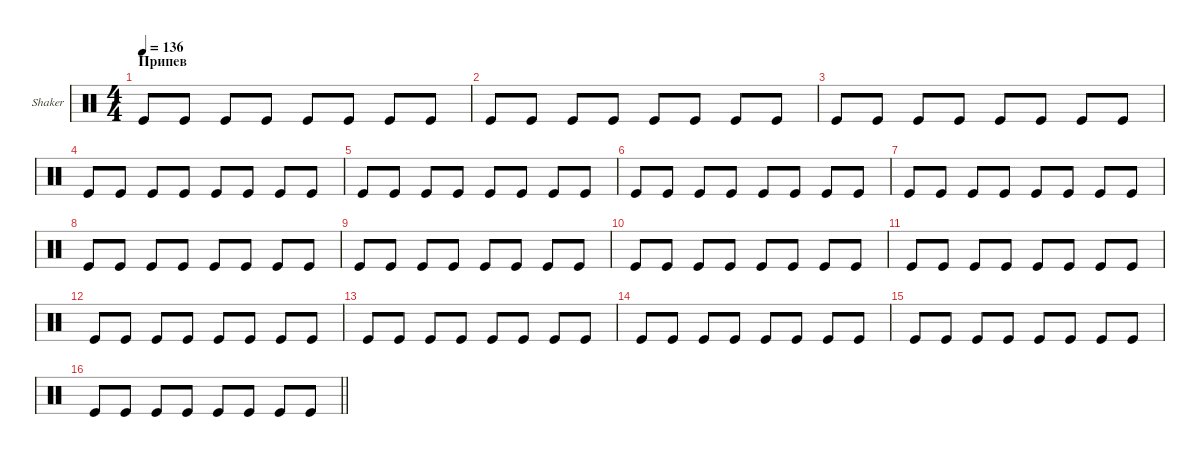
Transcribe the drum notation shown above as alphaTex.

\defaultSystemsLayout 4
\hideDynamics
\bracketExtendMode groupsimilarinstruments
\multiTrackTrackNamePolicy allsystems
\firstSystemTrackNameOrientation horizontal
\otherSystemsTrackNameOrientation horizontal
\track ("Shaker" "Shaker") {instrument percussion}
\staff {score}
\articulation defaults
\ts (4 4)
\section ("" "Припев")
\scale
0.289272
\tempo 136
\accidentals auto
\clef neutral
\ottava regular
\simile none
\scale
0.333333
\ks aminor "Kick (hit)".8{dy mf} "Kick (hit)".8 "Kick (hit)".8 "Kick (hit)".8 "Kick (hit)".8 "Kick (hit)".8 "Kick (hit)".8 "Kick (hit)".8
|
\scale
0.309524
\scale
0.333333 "Kick (hit)".8 "Kick (hit)".8 "Kick (hit)".8 "Kick (hit)".8 "Kick (hit)".8 "Kick (hit)".8 "Kick (hit)".8 "Kick (hit)".8 |
\scale
0.204762
\scale
0.333333 "Kick (hit)".8 "Kick (hit)".8 "Kick (hit)".8 "Kick (hit)".8 "Kick (hit)".8 "Kick (hit)".8 "Kick (hit)".8 "Kick (hit)".8 |
\scale
0.206792
\scale
0.333333 "Kick (hit)".8 "Kick (hit)".8 "Kick (hit)".8 "Kick (hit)".8 "Kick (hit)".8 "Kick (hit)".8 "Kick (hit)".8 "Kick (hit)".8 |
\scale
0.277691
\scale
0.333333 "Kick (hit)".8 "Kick (hit)".8 "Kick (hit)".8 "Kick (hit)".8 "Kick (hit)".8 "Kick (hit)".8 "Kick (hit)".8 "Kick (hit)".8 |
\scale
0.333333 "Kick (hit)".8 "Kick (hit)".8 "Kick (hit)".8 "Kick (hit)".8 "Kick (hit)".8 "Kick (hit)".8 "Kick (hit)".8 "Kick (hit)".8 |
\scale
0.333333 "Kick (hit)".8 "Kick (hit)".8 "Kick (hit)".8 "Kick (hit)".8 "Kick (hit)".8 "Kick (hit)".8 "Kick (hit)".8 "Kick (hit)".8 |
\scale
0.333333 "Kick (hit)".8 "Kick (hit)".8 "Kick (hit)".8 "Kick (hit)".8 "Kick (hit)".8 "Kick (hit)".8 "Kick (hit)".8 "Kick (hit)".8 |
\scale
0.290244
\scale
0.333333 "Kick (hit)".8 "Kick (hit)".8 "Kick (hit)".8 "Kick (hit)".8 "Kick (hit)".8 "Kick (hit)".8 "Kick (hit)".8 "Kick (hit)".8 |
\scale
0.262412
\scale
0.333333 "Kick (hit)".8 "Kick (hit)".8 "Kick (hit)".8 "Kick (hit)".8 "Kick (hit)".8 "Kick (hit)".8 "Kick (hit)".8 "Kick (hit)".8 |
\scale
0.193386
\scale
0.333333 "Kick (hit)".8 "Kick (hit)".8 "Kick (hit)".8 "Kick (hit)".8 "Kick (hit)".8 "Kick (hit)".8 "Kick (hit)".8 "Kick (hit)".8 |
\scale
0.254128
\scale
0.333333 "Kick (hit)".8 "Kick (hit)".8 "Kick (hit)".8 "Kick (hit)".8 "Kick (hit)".8 "Kick (hit)".8 "Kick (hit)".8 "Kick (hit)".8 |
\scale
0.321017
\scale
0.333333 "Kick (hit)".8 "Kick (hit)".8 "Kick (hit)".8 "Kick (hit)".8 "Kick (hit)".8 "Kick (hit)".8 "Kick (hit)".8 "Kick (hit)".8 |
\scale
0.229499
\scale
0.333333 "Kick (hit)".8 "Kick (hit)".8 "Kick (hit)".8 "Kick (hit)".8 "Kick (hit)".8 "Kick (hit)".8 "Kick (hit)".8 "Kick (hit)".8 |
\scale
0.23235
\scale
0.333333 "Kick (hit)".8 "Kick (hit)".8 "Kick (hit)".8 "Kick (hit)".8 "Kick (hit)".8 "Kick (hit)".8 "Kick (hit)".8 "Kick (hit)".8 |
\scale
0.217697
\scale
0.333333
\barLineRight lightlight "Kick (hit)".8 "Kick (hit)".8 "Kick (hit)".8 "Kick (hit)".8 "Kick (hit)".8 "Kick (hit)".8 "Kick (hit)".8 "Kick (hit)".8
